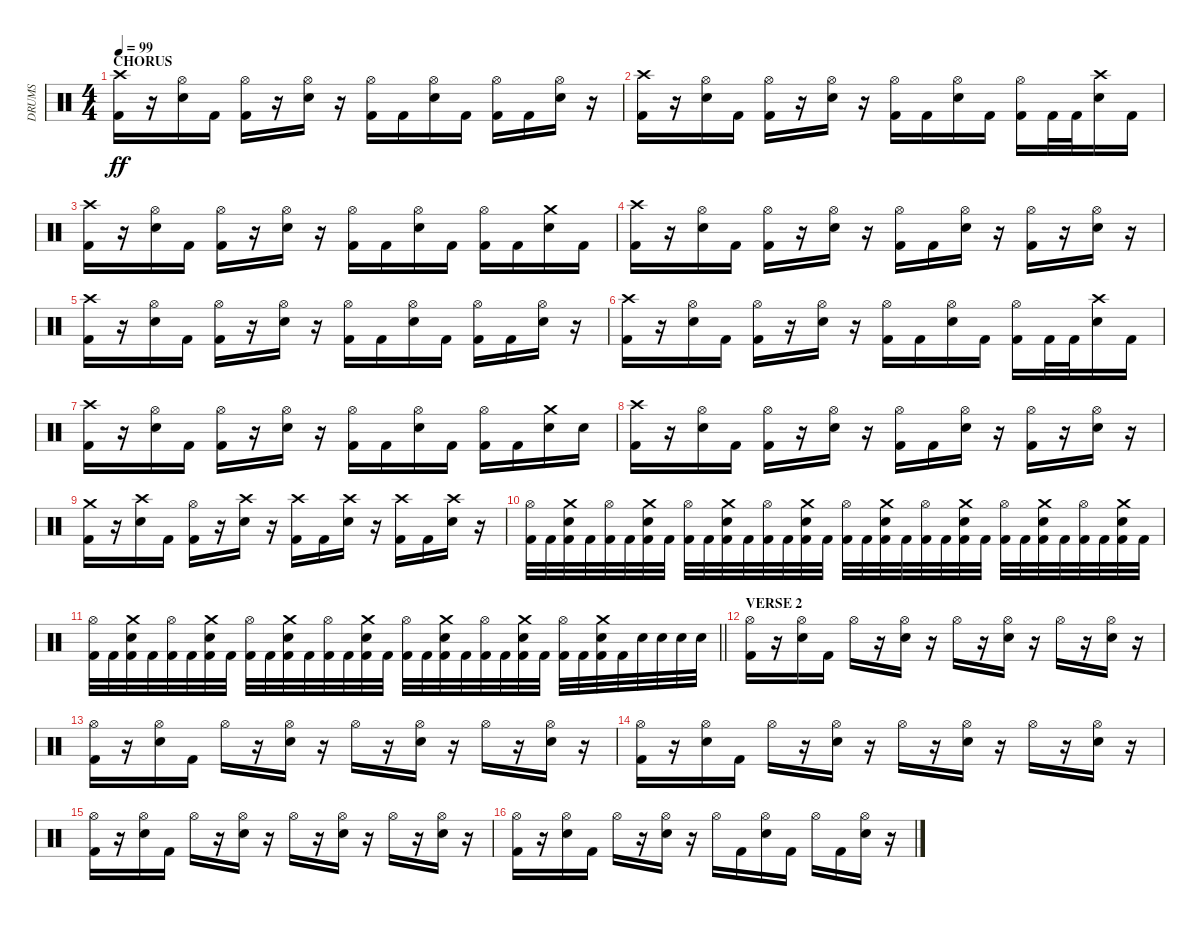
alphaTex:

\track ("DRUMS" "DRUMS") {instrument percussion}
\staff {score}
\articulation defaults
\ts (4 4)
\section ("" "CHORUS")
\tempo 99
\clef neutral
\ks c
("Crash high (hit)" "Kick (hit) 2").16{dy ff} r.16 ("Hi-Hat (open)" "Electric Snare (hit)").16 "Kick (hit) 2".16 ("Hi-Hat (open)" "Kick (hit) 2").16 r.16 ("Hi-Hat (open)" "Electric Snare (hit)").16 r.16 ("Hi-Hat (open)" "Kick (hit) 2").16 "Kick (hit) 2".16 ("Hi-Hat (open)" "Electric Snare (hit)").16 "Kick (hit) 2".16 ("Hi-Hat (open)" "Kick (hit) 2").16 "Kick (hit) 2".16 ("Hi-Hat (open)" "Electric Snare (hit)").16 r.16 |
("Crash high (hit)" "Kick (hit) 2").16 r.16 ("Hi-Hat (open)" "Electric Snare (hit)").16 "Kick (hit) 2".16 ("Hi-Hat (open)" "Kick (hit) 2").16 r.16 ("Hi-Hat (open)" "Electric Snare (hit)").16 r.16 ("Hi-Hat (open)" "Kick (hit) 2").16 "Kick (hit) 2".16 ("Hi-Hat (open)" "Electric Snare (hit)").16 "Kick (hit) 2".16 ("Hi-Hat (open)" "Kick (hit) 2").16 "Kick (hit) 2".32 "Kick (hit) 2".32 ("Crash high (hit)" "Electric Snare (hit)").16 "Kick (hit) 2".16 |
("Crash high (hit)" "Kick (hit) 2").16 r.16 ("Hi-Hat (open)" "Electric Snare (hit)").16 "Kick (hit) 2".16 ("Hi-Hat (open)" "Kick (hit) 2").16 r.16 ("Hi-Hat (open)" "Electric Snare (hit)").16 r.16 ("Hi-Hat (open)" "Kick (hit) 2").16 "Kick (hit) 2".16 ("Hi-Hat (open)" "Electric Snare (hit)").16 "Kick (hit) 2".16 ("Hi-Hat (open)" "Kick (hit) 2").16 "Kick (hit) 2".16 ("Crash medium (hit)" "Electric Snare (hit)").16 "Kick (hit) 2".16 |
("Crash high (hit)" "Kick (hit) 2").16 r.16 ("Hi-Hat (open)" "Electric Snare (hit)").16 "Kick (hit) 2".16 ("Hi-Hat (open)" "Kick (hit) 2").16 r.16 ("Hi-Hat (open)" "Electric Snare (hit)").16 r.16 ("Hi-Hat (open)" "Kick (hit) 2").16 "Kick (hit) 2".16 ("Hi-Hat (open)" "Electric Snare (hit)").16 r.16 ("Hi-Hat (open)" "Kick (hit) 2").16 r.16 ("Hi-Hat (open)" "Electric Snare (hit)").16 r.16 |
("Crash high (hit)" "Kick (hit) 2").16 r.16 ("Hi-Hat (open)" "Electric Snare (hit)").16 "Kick (hit) 2".16 ("Hi-Hat (open)" "Kick (hit) 2").16 r.16 ("Hi-Hat (open)" "Electric Snare (hit)").16 r.16 ("Hi-Hat (open)" "Kick (hit) 2").16 "Kick (hit) 2".16 ("Hi-Hat (open)" "Electric Snare (hit)").16 "Kick (hit) 2".16 ("Hi-Hat (open)" "Kick (hit) 2").16 "Kick (hit) 2".16 ("Hi-Hat (open)" "Electric Snare (hit)").16 r.16 |
("Crash high (hit)" "Kick (hit) 2").16 r.16 ("Hi-Hat (open)" "Electric Snare (hit)").16 "Kick (hit) 2".16 ("Hi-Hat (open)" "Kick (hit) 2").16 r.16 ("Hi-Hat (open)" "Electric Snare (hit)").16 r.16 ("Hi-Hat (open)" "Kick (hit) 2").16 "Kick (hit) 2".16 ("Hi-Hat (open)" "Electric Snare (hit)").16 "Kick (hit) 2".16 ("Hi-Hat (open)" "Kick (hit) 2").16 "Kick (hit) 2".32 "Kick (hit) 2".32 ("Crash high (hit)" "Electric Snare (hit)").16 "Kick (hit) 2".16 |
("Crash high (hit)" "Kick (hit) 2").16 r.16 ("Hi-Hat (open)" "Electric Snare (hit)").16 "Kick (hit) 2".16 ("Hi-Hat (open)" "Kick (hit) 2").16 r.16 ("Hi-Hat (open)" "Electric Snare (hit)").16 r.16 ("Hi-Hat (open)" "Kick (hit) 2").16 "Kick (hit) 2".16 ("Hi-Hat (open)" "Electric Snare (hit)").16 "Kick (hit) 2".16 ("Hi-Hat (open)" "Kick (hit) 2").16 "Kick (hit) 2".16 ("Crash medium (hit)" "Electric Snare (hit)").16 "Electric Snare (hit)".16 |
("Crash high (hit)" "Kick (hit) 2").16 r.16 ("Hi-Hat (open)" "Electric Snare (hit)").16 "Kick (hit) 2".16 ("Hi-Hat (open)" "Kick (hit) 2").16 r.16 ("Hi-Hat (open)" "Electric Snare (hit)").16 r.16 ("Hi-Hat (open)" "Kick (hit) 2").16 "Kick (hit) 2".16 ("Hi-Hat (open)" "Electric Snare (hit)").16 r.16 ("Hi-Hat (open)" "Kick (hit) 2").16 r.16 ("Hi-Hat (open)" "Electric Snare (hit)").16 r.16 |
("Crash medium (hit)" "Kick (hit) 2").16 r.16 ("Crash high (hit)" "Electric Snare (hit)").16 "Kick (hit) 2".16 ("Hi-Hat (open)" "Kick (hit) 2").16 r.16 ("Crash high (hit)" "Electric Snare (hit)").16 r.16 ("Crash high (hit)" "Kick (hit) 2").16 "Kick (hit) 2".16 ("Crash high (hit)" "Electric Snare (hit)").16 r.16 ("Crash high (hit)" "Kick (hit) 2").16 "Kick (hit) 2".16 ("Crash high (hit)" "Electric Snare (hit)").16 r.16 |
("Hi-Hat (open)" "Kick (hit) 2").32 "Kick (hit) 2".32 ("Crash medium (hit)" "Electric Snare (hit)" "Kick (hit) 2").32 "Kick (hit) 2".32 ("Hi-Hat (open)" "Kick (hit) 2").32 "Kick (hit) 2".32 ("Crash medium (hit)" "Electric Snare (hit)" "Kick (hit) 2").32 "Kick (hit) 2".32 ("Hi-Hat (open)" "Kick (hit) 2").32 "Kick (hit) 2".32 ("Crash medium (hit)" "Electric Snare (hit)" "Kick (hit) 2").32 "Kick (hit) 2".32 ("Hi-Hat (open)" "Kick (hit) 2").32 "Kick (hit) 2".32 ("Crash medium (hit)" "Electric Snare (hit)" "Kick (hit) 2").32 "Kick (hit) 2".32 ("Hi-Hat (open)" "Kick (hit) 2").32 "Kick (hit) 2".32 ("Crash medium (hit)" "Electric Snare (hit)" "Kick (hit) 2").32 "Kick (hit) 2".32 ("Hi-Hat (open)" "Kick (hit) 2").32 "Kick (hit) 2".32 ("Crash medium (hit)" "Electric Snare (hit)" "Kick (hit) 2").32 "Kick (hit) 2".32 ("Hi-Hat (open)" "Kick (hit) 2").32 "Kick (hit) 2".32 ("Crash medium (hit)" "Electric Snare (hit)" "Kick (hit) 2").32 "Kick (hit) 2".32 ("Hi-Hat (open)" "Kick (hit) 2").32 "Kick (hit) 2".32 ("Crash medium (hit)" "Electric Snare (hit)" "Kick (hit) 2").32 "Kick (hit) 2".32 |
\barLineRight lightlight
("Hi-Hat (open)" "Kick (hit) 2").32 "Kick (hit) 2".32 ("Crash medium (hit)" "Electric Snare (hit)" "Kick (hit) 2").32 "Kick (hit) 2".32 ("Hi-Hat (open)" "Kick (hit) 2").32 "Kick (hit) 2".32 ("Crash medium (hit)" "Electric Snare (hit)" "Kick (hit) 2").32 "Kick (hit) 2".32 ("Hi-Hat (open)" "Kick (hit) 2").32 "Kick (hit) 2".32 ("Crash medium (hit)" "Electric Snare (hit)" "Kick (hit) 2").32 "Kick (hit) 2".32 ("Hi-Hat (open)" "Kick (hit) 2").32 "Kick (hit) 2".32 ("Crash medium (hit)" "Electric Snare (hit)" "Kick (hit) 2").32 "Kick (hit) 2".32 ("Hi-Hat (open)" "Kick (hit) 2").32 "Kick (hit) 2".32 ("Crash medium (hit)" "Electric Snare (hit)" "Kick (hit) 2").32 "Kick (hit) 2".32 ("Hi-Hat (open)" "Kick (hit) 2").32 "Kick (hit) 2".32 ("Crash medium (hit)" "Electric Snare (hit)" "Kick (hit) 2").32 "Kick (hit) 2".32 ("Hi-Hat (open)" "Kick (hit) 2").32 "Kick (hit) 2".32 ("Crash medium (hit)" "Electric Snare (hit)" "Kick (hit) 2").32 "Kick (hit) 2".32 "Electric Snare (hit)".32 "Electric Snare (hit)".32 "Electric Snare (hit)".32 "Electric Snare (hit)".32 |
\section ("" "VERSE 2")
("Hi-Hat (open)" "Kick (hit) 2").16 r.16 ("Hi-Hat (open)" "Electric Snare (hit)").16 "Kick (hit) 2".16 "Hi-Hat (open)".16 r.16 ("Hi-Hat (open)" "Electric Snare (hit)").16 r.16 "Hi-Hat (open)".16 r.16 ("Hi-Hat (open)" "Electric Snare (hit)").16 r.16 "Hi-Hat (open)".16 r.16 ("Hi-Hat (open)" "Electric Snare (hit)").16 r.16 |
("Hi-Hat (open)" "Kick (hit) 2").16 r.16 ("Hi-Hat (open)" "Electric Snare (hit)").16 "Kick (hit) 2".16 "Hi-Hat (open)".16 r.16 ("Hi-Hat (open)" "Electric Snare (hit)").16 r.16 "Hi-Hat (open)".16 r.16 ("Hi-Hat (open)" "Electric Snare (hit)").16 r.16 "Hi-Hat (open)".16 r.16 ("Hi-Hat (open)" "Electric Snare (hit)").16 r.16 |
("Hi-Hat (open)" "Kick (hit) 2").16 r.16 ("Hi-Hat (open)" "Electric Snare (hit)").16 "Kick (hit) 2".16 "Hi-Hat (open)".16 r.16 ("Hi-Hat (open)" "Electric Snare (hit)").16 r.16 "Hi-Hat (open)".16 r.16 ("Hi-Hat (open)" "Electric Snare (hit)").16 r.16 "Hi-Hat (open)".16 r.16 ("Hi-Hat (open)" "Electric Snare (hit)").16 r.16 |
("Hi-Hat (open)" "Kick (hit) 2").16 r.16 ("Hi-Hat (open)" "Electric Snare (hit)").16 "Kick (hit) 2".16 "Hi-Hat (open)".16 r.16 ("Hi-Hat (open)" "Electric Snare (hit)").16 r.16 "Hi-Hat (open)".16 r.16 ("Hi-Hat (open)" "Electric Snare (hit)").16 r.16 "Hi-Hat (open)".16 r.16 ("Hi-Hat (open)" "Electric Snare (hit)").16 r.16 |
("Hi-Hat (open)" "Kick (hit) 2").16 r.16 ("Hi-Hat (open)" "Electric Snare (hit)").16 "Kick (hit) 2".16 "Hi-Hat (open)".16 r.16 ("Hi-Hat (open)" "Electric Snare (hit)").16 r.16 "Hi-Hat (open)".16 "Kick (hit) 2".16 ("Hi-Hat (open)" "Electric Snare (hit)").16 "Kick (hit) 2".16 "Hi-Hat (open)".16 "Kick (hit) 2".16 ("Hi-Hat (open)" "Electric Snare (hit)").16 r.16
